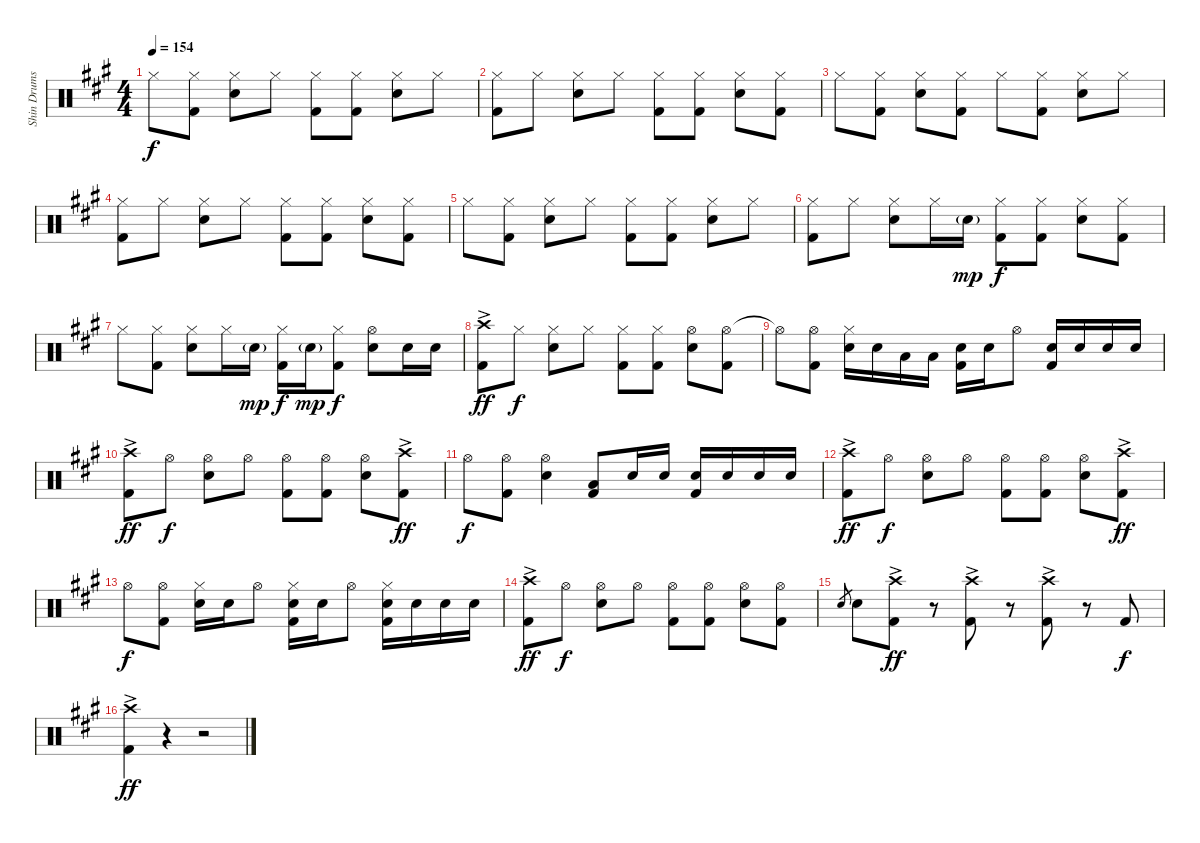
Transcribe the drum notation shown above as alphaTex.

\track ("Shin Drums" "Shin Drums") {instrument percussion}
\staff {score}
\articulation defaults
\ts (4 4)
\tempo 154
\clef neutral
\ks a "Hi-Hat (closed)".8{dy f}
("Hi-Hat (closed)" "Kick (hit) 2").8 ("Hi-Hat (closed)" "Snare (hit) 2").8 "Hi-Hat (closed)".8 ("Hi-Hat (closed)" "Kick (hit) 2").8 ("Hi-Hat (closed)" "Kick (hit) 2").8 ("Hi-Hat (closed)" "Snare (hit) 2").8 "Hi-Hat (closed)".8 |
("Hi-Hat (closed)" "Kick (hit) 2").8 "Hi-Hat (closed)".8 ("Hi-Hat (closed)" "Snare (hit) 2").8 "Hi-Hat (closed)".8 ("Hi-Hat (closed)" "Kick (hit) 2").8 ("Hi-Hat (closed)" "Kick (hit) 2").8 ("Hi-Hat (closed)" "Snare (hit) 2").8 ("Hi-Hat (closed)" "Kick (hit) 2").8 |
"Hi-Hat (closed)".8 ("Hi-Hat (closed)" "Kick (hit) 2").8 ("Hi-Hat (closed)" "Snare (hit) 2").8 ("Hi-Hat (closed)" "Kick (hit) 2").8 "Hi-Hat (closed)".8 ("Hi-Hat (closed)" "Kick (hit) 2").8 ("Hi-Hat (closed)" "Snare (hit) 2").8 "Hi-Hat (closed)".8 |
("Hi-Hat (closed)" "Kick (hit) 2").8 "Hi-Hat (closed)".8 ("Hi-Hat (closed)" "Snare (hit) 2").8 "Hi-Hat (closed)".8 ("Hi-Hat (closed)" "Kick (hit) 2").8 ("Hi-Hat (closed)" "Kick (hit) 2").8 ("Hi-Hat (closed)" "Snare (hit) 2").8 ("Hi-Hat (closed)" "Kick (hit) 2").8 |
"Hi-Hat (closed)".8 ("Hi-Hat (closed)" "Kick (hit) 2").8 ("Hi-Hat (closed)" "Snare (hit) 2").8 "Hi-Hat (closed)".8 ("Hi-Hat (closed)" "Kick (hit) 2").8 ("Hi-Hat (closed)" "Kick (hit) 2").8 ("Hi-Hat (closed)" "Snare (hit) 2").8 "Hi-Hat (closed)".8 |
("Hi-Hat (closed)" "Kick (hit) 2").8 "Hi-Hat (closed)".8 ("Hi-Hat (closed)" "Snare (hit) 2").8 "Hi-Hat (closed)".16 "Snare (hit) 2"{g}.16{dy mp} ("Hi-Hat (closed)" "Kick (hit) 2").8{dy f} ("Hi-Hat (closed)" "Kick (hit) 2").8 ("Hi-Hat (closed)" "Snare (hit) 2").8 ("Hi-Hat (closed)" "Kick (hit) 2").8 |
"Hi-Hat (closed)".8 ("Hi-Hat (closed)" "Kick (hit) 2").8 ("Hi-Hat (closed)" "Snare (hit) 2").8 "Hi-Hat (closed)".16 "Snare (hit) 2"{g}.16{dy mp} ("Hi-Hat (closed)" "Kick (hit) 2").16{dy f} "Snare (hit) 2"{g}.16{dy mp} ("Hi-Hat (closed)" "Kick (hit) 2").8{dy f} ("Hi-Hat (open)" "Snare (hit) 2").8 "Snare (hit) 2".16 "Snare (hit) 2".16 |
("Crash high (hit)"{ac} "Kick (hit) 2").8{dy ff} "Hi-Hat (closed)".8{dy f} ("Hi-Hat (closed)" "Snare (hit) 2").8 "Hi-Hat (closed)".8 ("Hi-Hat (closed)" "Kick (hit) 2").8 ("Hi-Hat (closed)" "Kick (hit) 2").8 ("Hi-Hat (open)" "Snare (hit) 2").8 ("Hi-Hat (open)" "Kick (hit) 2").8 |
"Hi-Hat (open)"{t}.8 ("Hi-Hat (open)" "Kick (hit) 2").8 ("Hi-Hat (closed)" "Snare (hit) 2").16 "Snare (hit) 2".16 "Low Tom (hit)".16 "Low Tom (hit)".16 ("Snare (hit) 2" "Kick (hit) 2").16 "Snare (hit) 2".16 "Hi-Hat (open)".8 ("Snare (hit) 2" "Kick (hit) 2").16 "Snare (hit) 2".16 "Snare (hit) 2".16 "Snare (hit) 2".16 |
("Crash high (hit)"{ac} "Kick (hit) 2").8{dy ff} "Hi-Hat (open)".8{dy f} ("Hi-Hat (open)" "Snare (hit) 2").8 "Hi-Hat (open)".8 ("Hi-Hat (open)" "Kick (hit) 2").8 ("Hi-Hat (open)" "Kick (hit) 2").8 ("Hi-Hat (open)" "Snare (hit) 2").8 ("Crash high (hit)"{ac} "Kick (hit) 2").8{dy ff} |
"Hi-Hat (open)".8{dy f} ("Hi-Hat (open)" "Kick (hit) 2").8 ("Hi-Hat (open)" "Snare (hit) 2").4 ("Low Tom (hit)" "Kick (hit) 2").8 "Snare (hit) 2".16 "Snare (hit) 2".16 ("Snare (hit) 2" "Kick (hit) 2").16 "Snare (hit) 2".16 "Snare (hit) 2".16 "Snare (hit) 2".16 |
("Crash high (hit)"{ac} "Kick (hit) 2").8{dy ff} "Hi-Hat (open)".8{dy f} ("Hi-Hat (open)" "Snare (hit) 2").8 "Hi-Hat (open)".8 ("Hi-Hat (open)" "Kick (hit) 2").8 ("Hi-Hat (open)" "Kick (hit) 2").8 ("Hi-Hat (open)" "Snare (hit) 2").8 ("Crash high (hit)"{ac} "Kick (hit) 2").8{dy ff} |
"Hi-Hat (open)".8{dy f} ("Hi-Hat (open)" "Kick (hit) 2").8 ("Hi-Hat (closed)" "Snare (hit) 2").16 "Snare (hit) 2".16 "Hi-Hat (open)".8 ("Hi-Hat (closed)" "Snare (hit) 2" "Kick (hit) 2").16 "Snare (hit) 2".16 "Hi-Hat (open)".8 ("Hi-Hat (closed)" "Snare (hit) 2" "Kick (hit) 2").16 "Snare (hit) 2".16 "Snare (hit) 2".16 "Snare (hit) 2".16 |
("Crash high (hit)"{ac} "Kick (hit) 2").8{dy ff} "Hi-Hat (open)".8{dy f} ("Hi-Hat (open)" "Snare (hit) 2").8 "Hi-Hat (open)".8 ("Hi-Hat (open)" "Kick (hit) 2").8 ("Hi-Hat (open)" "Kick (hit) 2").8 ("Hi-Hat (open)" "Snare (hit) 2").8 ("Hi-Hat (open)" "Kick (hit) 2").8 |
"Snare (hit) 2".8{gr} "Snare (hit) 2".8 ("Crash high (hit)"{ac} "Kick (hit) 2").8{dy ff} r.8 ("Crash high (hit)"{ac} "Kick (hit) 2").8 r.8 ("Crash high (hit)"{ac} "Kick (hit) 2").8 r.8 "Kick (hit) 2".8{dy f} |
("Crash high (hit)"{ac} "Kick (hit) 2").4{dy ff} r.4 r.2
